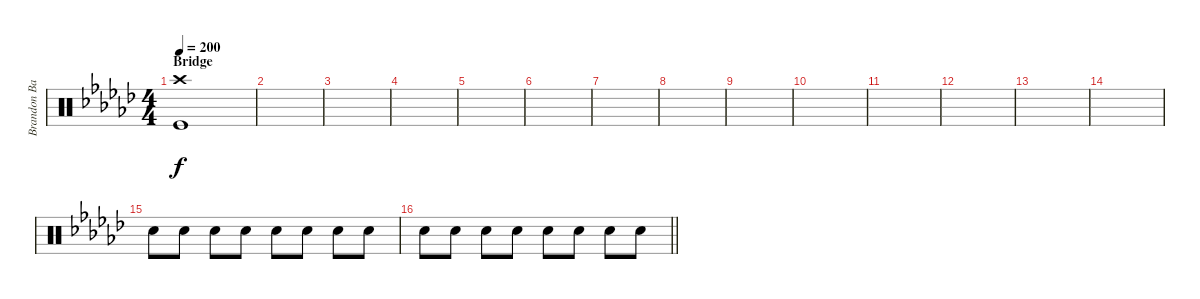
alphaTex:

\track ("Brandon Barnes - Drums" "Brandon Ba") {instrument percussion}
\staff {score}
\articulation defaults
\ts (4 4)
\section ("" "Bridge")
\tempo 200
\clef neutral
\ks ebminor
("Crash high (hit)" "Kick (hit)").1{dy f} |
|
|
|
|
|
|
|
|
|
|
|
|
|
"Snare (hit) 2".8 "Snare (hit) 2".8 "Snare (hit) 2".8 "Snare (hit) 2".8 "Snare (hit) 2".8 "Snare (hit) 2".8 "Snare (hit) 2".8 "Snare (hit) 2".8 |
\barLineRight lightlight "Snare (hit) 2".8 "Snare (hit) 2".8 "Snare (hit) 2".8 "Snare (hit) 2".8 "Snare (hit) 2".8 "Snare (hit) 2".8 "Snare (hit) 2".8 "Snare (hit) 2".8
